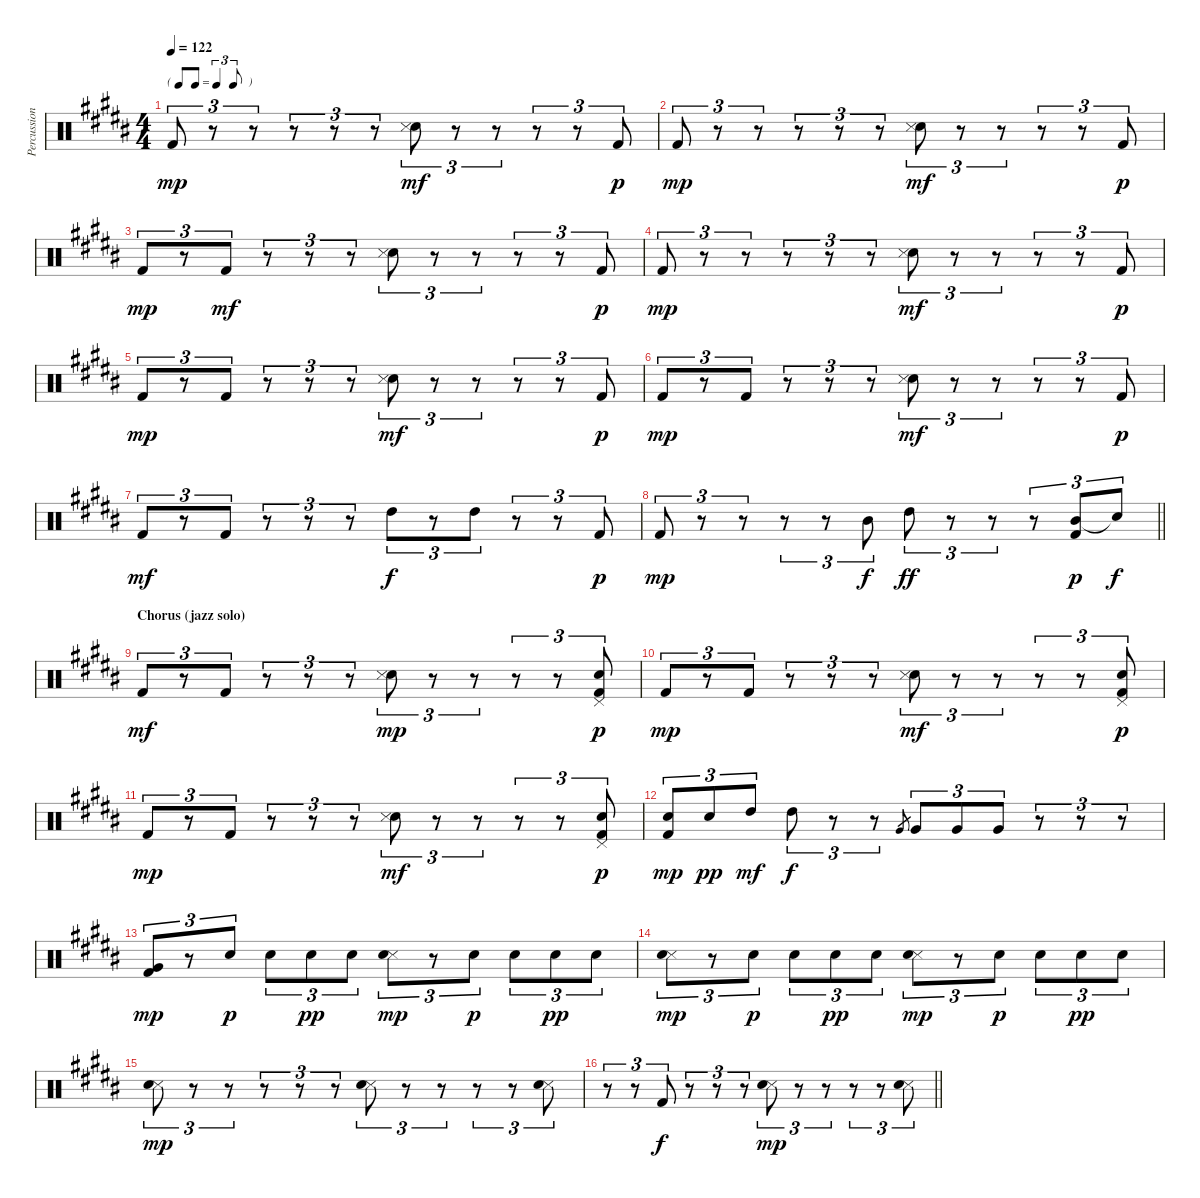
\track ("Percussion" "Percussion") {instrument percussion}
\staff {score}
\articulation defaults
\ts (4 4)
\tf triplet8th
\tempo 122
\clef neutral
\ks g#minor "Kick (hit) 2".8{tu (3 2) dy mp}
r.8{tu (3 2)} r.8{tu (3 2)} r.8{tu (3 2)} r.8{tu (3 2)} r.8{tu (3 2)} ("Snare (hit) 2" "Snare (side stick) 3").8{tu (3 2) dy mf} r.8{tu (3 2)} r.8{tu (3 2)} r.8{tu (3 2)} r.8{tu (3 2)} "Kick (hit) 2".8{tu (3 2) dy p} |
"Kick (hit) 2".8{tu (3 2) dy mp} r.8{tu (3 2)} r.8{tu (3 2)} r.8{tu (3 2)} r.8{tu (3 2)} r.8{tu (3 2)} ("Snare (hit) 2" "Snare (side stick) 3").8{tu (3 2) dy mf} r.8{tu (3 2)} r.8{tu (3 2)} r.8{tu (3 2)} r.8{tu (3 2)} "Kick (hit) 2".8{tu (3 2) dy p} |
"Kick (hit) 2".8{tu (3 2) dy mp} r.8{tu (3 2)} "Kick (hit) 2".8{tu (3 2) dy mf} r.8{tu (3 2)} r.8{tu (3 2)} r.8{tu (3 2)} ("Snare (hit) 2" "Snare (side stick) 3").8{tu (3 2)} r.8{tu (3 2)} r.8{tu (3 2)} r.8{tu (3 2)} r.8{tu (3 2)} "Kick (hit) 2".8{tu (3 2) dy p} |
"Kick (hit) 2".8{tu (3 2) dy mp} r.8{tu (3 2)} r.8{tu (3 2)} r.8{tu (3 2)} r.8{tu (3 2)} r.8{tu (3 2)} ("Snare (hit) 2" "Snare (side stick) 3").8{tu (3 2) dy mf} r.8{tu (3 2)} r.8{tu (3 2)} r.8{tu (3 2)} r.8{tu (3 2)} "Kick (hit) 2".8{tu (3 2) dy p} |
"Kick (hit) 2".8{tu (3 2) dy mp} r.8{tu (3 2)} "Kick (hit) 2".8{tu (3 2)} r.8{tu (3 2)} r.8{tu (3 2)} r.8{tu (3 2)} ("Snare (hit) 2" "Snare (side stick) 3").8{tu (3 2) dy mf} r.8{tu (3 2)} r.8{tu (3 2)} r.8{tu (3 2)} r.8{tu (3 2)} "Kick (hit) 2".8{tu (3 2) dy p} |
"Kick (hit) 2".8{tu (3 2) dy mp} r.8{tu (3 2)} "Kick (hit) 2".8{tu (3 2)} r.8{tu (3 2)} r.8{tu (3 2)} r.8{tu (3 2)} ("Snare (hit) 2" "Snare (side stick) 3").8{tu (3 2) dy mf} r.8{tu (3 2)} r.8{tu (3 2)} r.8{tu (3 2)} r.8{tu (3 2)} "Kick (hit) 2".8{tu (3 2) dy p} |
"Kick (hit) 2".8{tu (3 2) dy mf} r.8{tu (3 2)} "Kick (hit) 2".8{tu (3 2)} r.8{tu (3 2)} r.8{tu (3 2)} r.8{tu (3 2)} "High Tom (hit)".8{tu (3 2) dy f} r.8{tu (3 2)} "High Tom (hit)".8{tu (3 2)} r.8{tu (3 2)} r.8{tu (3 2)} "Kick (hit) 2".8{tu (3 2) dy p} |
\barLineRight lightlight "Kick (hit) 2".8{tu (3 2) dy mp}
r.8{tu (3 2)} r.8{tu (3 2)} r.8{tu (3 2)} r.8{tu (3 2)} "Mid Tom (hit)".8{tu (3 2) dy f} "High Tom (hit)".8{tu (3 2) dy ff} r.8{tu (3 2)} r.8{tu (3 2)} r.8{tu (3 2)} ("Mid Tom (hit)" "Kick (hit) 2").8{tu (3 2) dy p} "Snare (hit)"{t}.8{tu (3 2) dy f} |
\section ("" "Chorus (jazz solo)")
"Kick (hit) 2".8{tu (3 2) dy mf} r.8{tu (3 2)} "Kick (hit) 2".8{tu (3 2)} r.8{tu (3 2)} r.8{tu (3 2)} r.8{tu (3 2)} ("Snare (hit) 2" "Snare (side stick) 3").8{tu (3 2) dy mp} r.8{tu (3 2)} r.8{tu (3 2)} r.8{tu (3 2)} r.8{tu (3 2)} ("Snare (hit) 2" "Pedal Hi-Hat (hit)" "Kick (hit) 2").8{tu (3 2) dy p} |
"Kick (hit) 2".8{tu (3 2) dy mp} r.8{tu (3 2)} "Kick (hit) 2".8{tu (3 2)} r.8{tu (3 2)} r.8{tu (3 2)} r.8{tu (3 2)} ("Snare (hit) 2" "Snare (side stick) 3").8{tu (3 2) dy mf} r.8{tu (3 2)} r.8{tu (3 2)} r.8{tu (3 2)} r.8{tu (3 2)} ("Snare (hit) 2" "Pedal Hi-Hat (hit)" "Kick (hit) 2").8{tu (3 2) dy p} |
"Kick (hit) 2".8{tu (3 2) dy mp} r.8{tu (3 2)} "Kick (hit) 2".8{tu (3 2)} r.8{tu (3 2)} r.8{tu (3 2)} r.8{tu (3 2)} ("Snare (hit) 2" "Snare (side stick) 3").8{tu (3 2) dy mf} r.8{tu (3 2)} r.8{tu (3 2)} r.8{tu (3 2)} r.8{tu (3 2)} ("Snare (hit) 2" "Pedal Hi-Hat (hit)" "Kick (hit) 2").8{tu (3 2) dy p} |
("Snare (hit) 2" "Kick (hit) 2").8{tu (3 2) dy mp} "Snare (hit) 2".8{tu (3 2) dy pp} "High Tom (hit)".8{tu (3 2) dy mf} "High Tom (hit)".8{tu (3 2) dy f} r.8{tu (3 2)} r.8{tu (3 2)} "Very Low Tom (hit)".8{gr} "Very Low Tom (hit)".8{tu (3 2)} "Very Low Tom (hit)".8{tu (3 2)} "Very Low Tom (hit)".8{tu (3 2)} r.8{tu (3 2)} r.8{tu (3 2)} r.8{tu (3 2)} |
("Very Low Tom (hit)" "Kick (hit) 2").8{tu (3 2) dy mp} r.8{tu (3 2)} "Snare (hit) 2".8{tu (3 2) dy p} "Snare (hit) 2".8{tu (3 2)} "Snare (hit) 2".8{tu (3 2) dy pp} "Snare (hit) 2".8{tu (3 2)} ("Snare (side stick) 3" "Snare (hit) 2").8{tu (3 2) dy mp} r.8{tu (3 2)} "Snare (hit) 2".8{tu (3 2) dy p} "Snare (hit) 2".8{tu (3 2)} "Snare (hit) 2".8{tu (3 2) dy pp} "Snare (hit) 2".8{tu (3 2)} |
("Snare (side stick) 3" "Snare (hit) 2").8{tu (3 2) dy mp} r.8{tu (3 2)} "Snare (hit) 2".8{tu (3 2) dy p} "Snare (hit) 2".8{tu (3 2)} "Snare (hit) 2".8{tu (3 2) dy pp} "Snare (hit) 2".8{tu (3 2)} ("Snare (side stick) 3" "Snare (hit) 2").8{tu (3 2) dy mp} r.8{tu (3 2)} "Snare (hit) 2".8{tu (3 2) dy p} "Snare (hit) 2".8{tu (3 2)} "Snare (hit) 2".8{tu (3 2) dy pp} "Snare (hit) 2".8{tu (3 2)} |
("Snare (side stick) 3" "Snare (hit) 2").8{tu (3 2) dy mp} r.8{tu (3 2)} r.8{tu (3 2)} r.8{tu (3 2)} r.8{tu (3 2)} r.8{tu (3 2)} ("Snare (side stick) 3" "Snare (hit) 2").8{tu (3 2)} r.8{tu (3 2)} r.8{tu (3 2)} r.8{tu (3 2)} r.8{tu (3 2)} ("Snare (side stick) 3" "Snare (hit) 2").8{tu (3 2)} |
\barLineRight lightlight
r.8{tu (3 2)} r.8{tu (3 2)} "Kick (hit) 2".8{tu (3 2) dy f} r.8{tu (3 2)} r.8{tu (3 2)} r.8{tu (3 2)} ("Snare (side stick) 3" "Snare (hit) 2").8{tu (3 2) dy mp} r.8{tu (3 2)} r.8{tu (3 2)} r.8{tu (3 2)} r.8{tu (3 2)} ("Snare (side stick) 3" "Snare (hit) 2").8{tu (3 2)}
